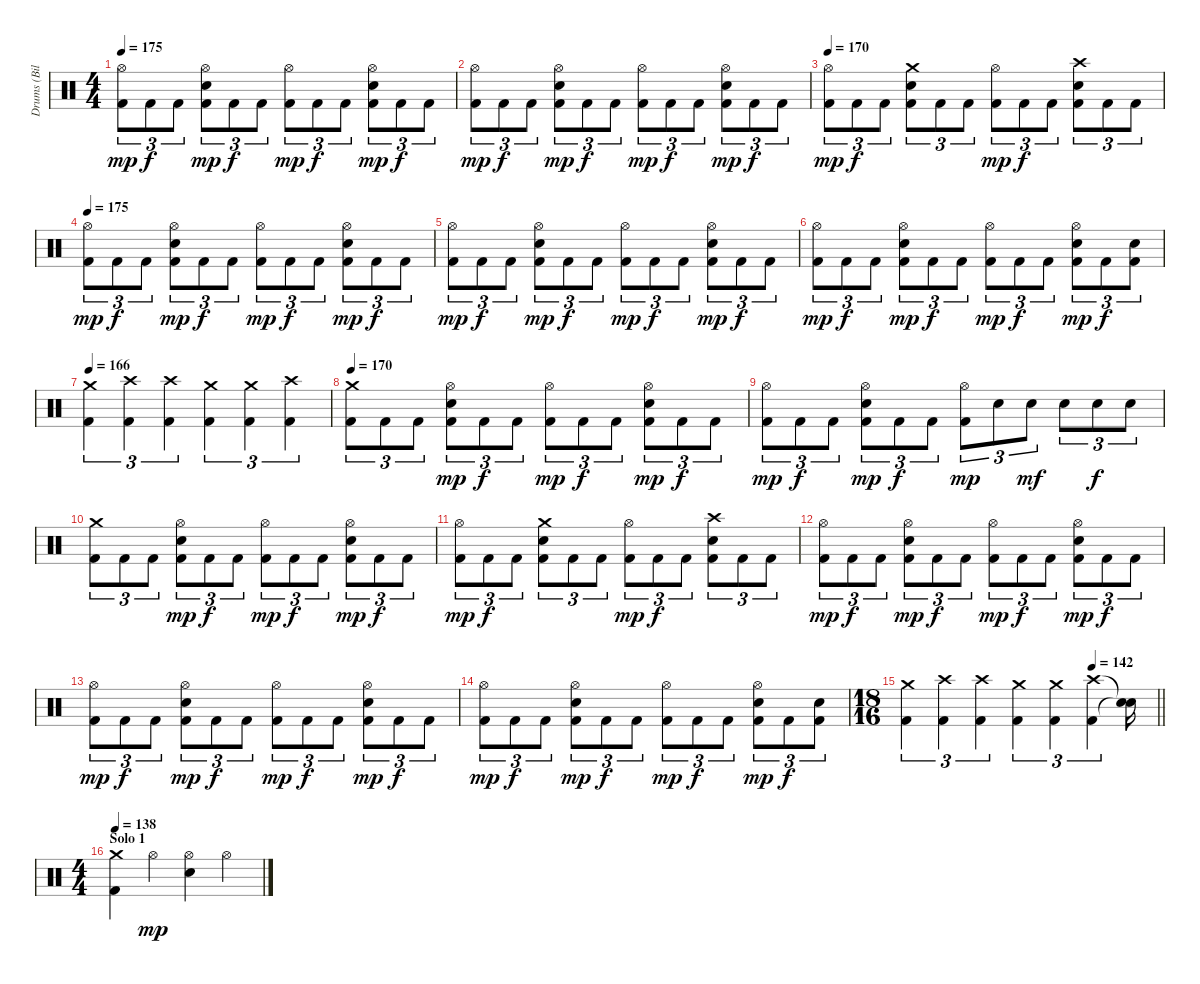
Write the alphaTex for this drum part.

\track ("Drums (Bill Andrews)" "Drums (Bil") {instrument percussion}
\staff
\articulation defaults
\ts (4 4)
\tempo 175
\clef neutral
\ks c
("Hi-Hat (open)" "Kick (hit) 2").8{tu (3 2) dy mp} "Kick (hit) 2".8{tu (3 2) dy f} "Kick (hit) 2".8{tu (3 2)} ("Hi-Hat (open)" "Kick (hit) 2" "Electric Snare (hit)").8{tu (3 2) dy mp} "Kick (hit) 2".8{tu (3 2) dy f} "Kick (hit) 2".8{tu (3 2)} ("Hi-Hat (open)" "Kick (hit) 2").8{tu (3 2) dy mp} "Kick (hit) 2".8{tu (3 2) dy f} "Kick (hit) 2".8{tu (3 2)} ("Hi-Hat (open)" "Kick (hit) 2" "Electric Snare (hit)").8{tu (3 2) dy mp} "Kick (hit) 2".8{tu (3 2) dy f} "Kick (hit) 2".8{tu (3 2)} |
("Hi-Hat (open)" "Kick (hit) 2").8{tu (3 2) dy mp} "Kick (hit) 2".8{tu (3 2) dy f} "Kick (hit) 2".8{tu (3 2)} ("Hi-Hat (open)" "Kick (hit) 2" "Electric Snare (hit)").8{tu (3 2) dy mp} "Kick (hit) 2".8{tu (3 2) dy f} "Kick (hit) 2".8{tu (3 2)} ("Hi-Hat (open)" "Kick (hit) 2").8{tu (3 2) dy mp} "Kick (hit) 2".8{tu (3 2) dy f} "Kick (hit) 2".8{tu (3 2)} ("Hi-Hat (open)" "Kick (hit) 2" "Electric Snare (hit)").8{tu (3 2) dy mp} "Kick (hit) 2".8{tu (3 2) dy f} "Kick (hit) 2".8{tu (3 2)} |
\tempo 170
("Hi-Hat (open)" "Kick (hit) 2").8{tu (3 2) dy mp} "Kick (hit) 2".8{tu (3 2) dy f} "Kick (hit) 2".8{tu (3 2)} ("Crash medium (hit)" "Kick (hit) 2" "Electric Snare (hit)").8{tu (3 2)} "Kick (hit) 2".8{tu (3 2)} "Kick (hit) 2".8{tu (3 2)} ("Hi-Hat (open)" "Kick (hit) 2").8{tu (3 2) dy mp} "Kick (hit) 2".8{tu (3 2) dy f} "Kick (hit) 2".8{tu (3 2)} ("Crash high (hit)" "Kick (hit) 2" "Electric Snare (hit)").8{tu (3 2)} "Kick (hit) 2".8{tu (3 2)} "Kick (hit) 2".8{tu (3 2)} |
\tempo 175
("Hi-Hat (open)" "Kick (hit) 2").8{tu (3 2) dy mp} "Kick (hit) 2".8{tu (3 2) dy f} "Kick (hit) 2".8{tu (3 2)} ("Hi-Hat (open)" "Kick (hit) 2" "Electric Snare (hit)").8{tu (3 2) dy mp} "Kick (hit) 2".8{tu (3 2) dy f} "Kick (hit) 2".8{tu (3 2)} ("Hi-Hat (open)" "Kick (hit) 2").8{tu (3 2) dy mp} "Kick (hit) 2".8{tu (3 2) dy f} "Kick (hit) 2".8{tu (3 2)} ("Hi-Hat (open)" "Kick (hit) 2" "Electric Snare (hit)").8{tu (3 2) dy mp} "Kick (hit) 2".8{tu (3 2) dy f} "Kick (hit) 2".8{tu (3 2)} |
("Hi-Hat (open)" "Kick (hit) 2").8{tu (3 2) dy mp} "Kick (hit) 2".8{tu (3 2) dy f} "Kick (hit) 2".8{tu (3 2)} ("Hi-Hat (open)" "Kick (hit) 2" "Electric Snare (hit)").8{tu (3 2) dy mp} "Kick (hit) 2".8{tu (3 2) dy f} "Kick (hit) 2".8{tu (3 2)} ("Hi-Hat (open)" "Kick (hit) 2").8{tu (3 2) dy mp} "Kick (hit) 2".8{tu (3 2) dy f} "Kick (hit) 2".8{tu (3 2)} ("Hi-Hat (open)" "Kick (hit) 2" "Electric Snare (hit)").8{tu (3 2) dy mp} "Kick (hit) 2".8{tu (3 2) dy f} "Kick (hit) 2".8{tu (3 2)} |
("Hi-Hat (open)" "Kick (hit) 2").8{tu (3 2) dy mp} "Kick (hit) 2".8{tu (3 2) dy f} "Kick (hit) 2".8{tu (3 2)} ("Hi-Hat (open)" "Kick (hit) 2" "Electric Snare (hit)").8{tu (3 2) dy mp} "Kick (hit) 2".8{tu (3 2) dy f} "Kick (hit) 2".8{tu (3 2)} ("Hi-Hat (open)" "Kick (hit) 2").8{tu (3 2) dy mp} "Kick (hit) 2".8{tu (3 2) dy f} "Kick (hit) 2".8{tu (3 2)} ("Hi-Hat (open)" "Kick (hit) 2" "Electric Snare (hit)").8{tu (3 2) dy mp} "Kick (hit) 2".8{tu (3 2) dy f} ("Kick (hit) 2" "Electric Snare (hit)").8{tu (3 2)} |
\tempo 166
("Crash medium (hit)" "Kick (hit) 2").4{tu (3 2)} ("Crash high (hit)" "Kick (hit) 2").4{tu (3 2)} ("Crash high (hit)" "Kick (hit) 2").4{tu (3 2)} ("Crash medium (hit)" "Kick (hit) 2").4{tu (3 2)} ("Crash medium (hit)" "Kick (hit) 2").4{tu (3 2)} ("Crash high (hit)" "Kick (hit) 2").4{tu (3 2)} |
\tempo 170
("Crash medium (hit)" "Kick (hit) 2").8{tu (3 2)} "Kick (hit) 2".8{tu (3 2)} "Kick (hit) 2".8{tu (3 2)} ("Hi-Hat (open)" "Kick (hit) 2" "Electric Snare (hit)").8{tu (3 2) dy mp} "Kick (hit) 2".8{tu (3 2) dy f} "Kick (hit) 2".8{tu (3 2)} ("Hi-Hat (open)" "Kick (hit) 2").8{tu (3 2) dy mp} "Kick (hit) 2".8{tu (3 2) dy f} "Kick (hit) 2".8{tu (3 2)} ("Hi-Hat (open)" "Kick (hit) 2" "Electric Snare (hit)").8{tu (3 2) dy mp} "Kick (hit) 2".8{tu (3 2) dy f} "Kick (hit) 2".8{tu (3 2)} |
("Hi-Hat (open)" "Kick (hit) 2").8{tu (3 2) dy mp} "Kick (hit) 2".8{tu (3 2) dy f} "Kick (hit) 2".8{tu (3 2)} ("Hi-Hat (open)" "Kick (hit) 2" "Electric Snare (hit)").8{tu (3 2) dy mp} "Kick (hit) 2".8{tu (3 2) dy f} "Kick (hit) 2".8{tu (3 2)} ("Hi-Hat (open)" "Kick (hit) 2").8{tu (3 2) dy mp} "Electric Snare (hit)".8{tu (3 2)} "Electric Snare (hit)".8{tu (3 2) dy mf} "Electric Snare (hit)".8{tu (3 2)} "Electric Snare (hit)".8{tu (3 2) dy f} "Electric Snare (hit)".8{tu (3 2)} |
("Crash medium (hit)" "Kick (hit) 2").8{tu (3 2)} "Kick (hit) 2".8{tu (3 2)} "Kick (hit) 2".8{tu (3 2)} ("Hi-Hat (open)" "Kick (hit) 2" "Electric Snare (hit)").8{tu (3 2) dy mp} "Kick (hit) 2".8{tu (3 2) dy f} "Kick (hit) 2".8{tu (3 2)} ("Hi-Hat (open)" "Kick (hit) 2").8{tu (3 2) dy mp} "Kick (hit) 2".8{tu (3 2) dy f} "Kick (hit) 2".8{tu (3 2)} ("Hi-Hat (open)" "Kick (hit) 2" "Electric Snare (hit)").8{tu (3 2) dy mp} "Kick (hit) 2".8{tu (3 2) dy f} "Kick (hit) 2".8{tu (3 2)} |
("Hi-Hat (open)" "Kick (hit) 2").8{tu (3 2) dy mp} "Kick (hit) 2".8{tu (3 2) dy f} "Kick (hit) 2".8{tu (3 2)} ("Crash medium (hit)" "Kick (hit) 2" "Electric Snare (hit)").8{tu (3 2)} "Kick (hit) 2".8{tu (3 2)} "Kick (hit) 2".8{tu (3 2)} ("Hi-Hat (open)" "Kick (hit) 2").8{tu (3 2) dy mp} "Kick (hit) 2".8{tu (3 2) dy f} "Kick (hit) 2".8{tu (3 2)} ("Crash high (hit)" "Kick (hit) 2" "Electric Snare (hit)").8{tu (3 2)} "Kick (hit) 2".8{tu (3 2)} "Kick (hit) 2".8{tu (3 2)} |
("Hi-Hat (open)" "Kick (hit) 2").8{tu (3 2) dy mp} "Kick (hit) 2".8{tu (3 2) dy f} "Kick (hit) 2".8{tu (3 2)} ("Hi-Hat (open)" "Kick (hit) 2" "Electric Snare (hit)").8{tu (3 2) dy mp} "Kick (hit) 2".8{tu (3 2) dy f} "Kick (hit) 2".8{tu (3 2)} ("Hi-Hat (open)" "Kick (hit) 2").8{tu (3 2) dy mp} "Kick (hit) 2".8{tu (3 2) dy f} "Kick (hit) 2".8{tu (3 2)} ("Hi-Hat (open)" "Kick (hit) 2" "Electric Snare (hit)").8{tu (3 2) dy mp} "Kick (hit) 2".8{tu (3 2) dy f} "Kick (hit) 2".8{tu (3 2)} |
("Hi-Hat (open)" "Kick (hit) 2").8{tu (3 2) dy mp} "Kick (hit) 2".8{tu (3 2) dy f} "Kick (hit) 2".8{tu (3 2)} ("Hi-Hat (open)" "Kick (hit) 2" "Electric Snare (hit)").8{tu (3 2) dy mp} "Kick (hit) 2".8{tu (3 2) dy f} "Kick (hit) 2".8{tu (3 2)} ("Hi-Hat (open)" "Kick (hit) 2").8{tu (3 2) dy mp} "Kick (hit) 2".8{tu (3 2) dy f} "Kick (hit) 2".8{tu (3 2)} ("Hi-Hat (open)" "Kick (hit) 2" "Electric Snare (hit)").8{tu (3 2) dy mp} "Kick (hit) 2".8{tu (3 2) dy f} "Kick (hit) 2".8{tu (3 2)} |
("Hi-Hat (open)" "Kick (hit) 2").8{tu (3 2) dy mp} "Kick (hit) 2".8{tu (3 2) dy f} "Kick (hit) 2".8{tu (3 2)} ("Hi-Hat (open)" "Kick (hit) 2" "Electric Snare (hit)").8{tu (3 2) dy mp} "Kick (hit) 2".8{tu (3 2) dy f} "Kick (hit) 2".8{tu (3 2)} ("Hi-Hat (open)" "Kick (hit) 2").8{tu (3 2) dy mp} "Kick (hit) 2".8{tu (3 2) dy f} "Kick (hit) 2".8{tu (3 2)} ("Hi-Hat (open)" "Kick (hit) 2" "Electric Snare (hit)").8{tu (3 2) dy mp} "Kick (hit) 2".8{tu (3 2) dy f} ("Kick (hit) 2" "Electric Snare (hit)").8{tu (3 2)} |
\ts (18 16)
\tempo (142 0.7407407407407407)
\barLineRight lightlight
("Crash medium (hit)" "Kick (hit) 2").4{tu (3 2)} ("Crash high (hit)" "Kick (hit) 2").4{tu (3 2)} ("Crash high (hit)" "Kick (hit) 2").4{tu (3 2)} ("Crash medium (hit)" "Kick (hit) 2").4{tu (3 2)} ("Crash medium (hit)" "Kick (hit) 2").4{tu (3 2)} ("Crash high (hit)" "Kick (hit) 2").4{tu (3 2)} ("Snare (hit)"{t} "Snare (hit)"{t}).16 |
\ts (4 4)
\section ("" "Solo 1")
\tempo 142
\tempo 138
("Crash medium (hit)" "Kick (hit) 2").4 "Hi-Hat (open)".4{dy mp} ("Hi-Hat (open)" "Electric Snare (hit)").4 "Hi-Hat (open)".4
